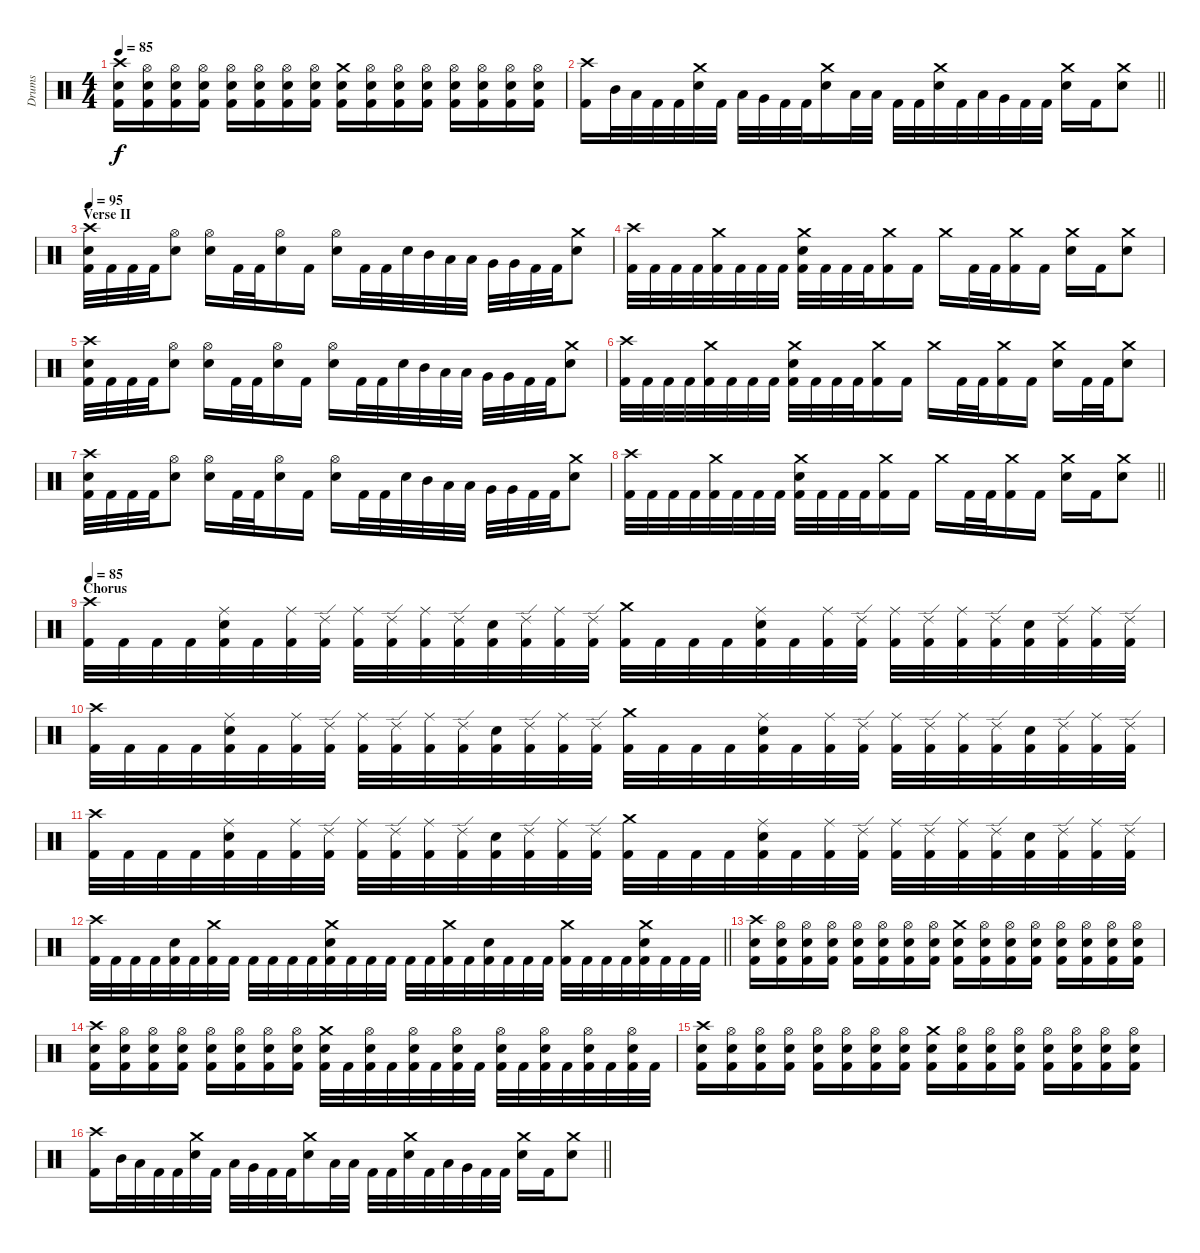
\track ("Drums" "Drums") {instrument percussion}
\staff {score}
\articulation defaults
\ts (4 4)
\tempo 85
\clef neutral
\ks c
("Crash high (hit)" "Electric Snare (hit)" "Kick (hit) 2").16{dy f} ("Hi-Hat (open)" "Electric Snare (hit)" "Kick (hit) 2").16 ("Hi-Hat (open)" "Electric Snare (hit)" "Kick (hit) 2").16 ("Hi-Hat (open)" "Electric Snare (hit)" "Kick (hit) 2").16 ("Hi-Hat (open)" "Electric Snare (hit)" "Kick (hit) 2").16 ("Hi-Hat (open)" "Electric Snare (hit)" "Kick (hit) 2").16 ("Hi-Hat (open)" "Electric Snare (hit)" "Kick (hit) 2").16 ("Hi-Hat (open)" "Electric Snare (hit)" "Kick (hit) 2").16 ("Crash medium (hit)" "Electric Snare (hit)" "Kick (hit) 2").16 ("Hi-Hat (open)" "Electric Snare (hit)" "Kick (hit) 2").16 ("Hi-Hat (open)" "Electric Snare (hit)" "Kick (hit) 2").16 ("Hi-Hat (open)" "Electric Snare (hit)" "Kick (hit) 2").16 ("Hi-Hat (open)" "Electric Snare (hit)" "Kick (hit) 2").16 ("Hi-Hat (open)" "Electric Snare (hit)" "Kick (hit) 2").16 ("Hi-Hat (open)" "Electric Snare (hit)" "Kick (hit) 2").16 ("Hi-Hat (open)" "Electric Snare (hit)" "Kick (hit) 2").16 |
\barLineRight lightlight
("Crash high (hit)" "Kick (hit) 2").16 "Mid Tom (hit)".32 "Low Tom (hit)".32 "Kick (hit) 2".32 "Kick (hit) 2".32 ("Crash medium (hit)" "Electric Snare (hit)").32 "Kick (hit) 2".32 "Low Tom (hit)".32 "Very Low Tom (hit)".32 "Kick (hit) 2".32 "Kick (hit) 2".32 ("Crash medium (hit)" "Electric Snare (hit)").16 "Low Tom (hit)".32 "Low Tom (hit)".32 "Kick (hit) 2".32 "Kick (hit) 2".32 ("Crash medium (hit)" "Electric Snare (hit)").32 "Kick (hit) 2".32 "Low Tom (hit)".32 "Very Low Tom (hit)".32 "Kick (hit) 2".32 "Kick (hit) 2".32 ("Crash medium (hit)" "Electric Snare (hit)").16 "Kick (hit) 2".16 ("Crash medium (hit)" "Electric Snare (hit)").8 |
\section ("" "Verse II")
\tempo 95
("Crash high (hit)" "Electric Snare (hit)" "Kick (hit) 2").32 "Kick (hit) 2".32 "Kick (hit) 2".32 "Kick (hit) 2".32 ("Hi-Hat (open)" "Electric Snare (hit)").8 ("Hi-Hat (open)" "Electric Snare (hit)").16 "Kick (hit) 2".32 "Kick (hit) 2".32 ("Hi-Hat (open)" "Electric Snare (hit)").16 "Kick (hit) 2".16 ("Hi-Hat (open)" "Electric Snare (hit)").16 "Kick (hit) 2".32 "Kick (hit) 2".32 "Electric Snare (hit)".32 "Mid Tom (hit)".32 "Low Tom (hit)".32 "Low Tom (hit)".32 "Very Low Tom (hit)".32 "Very Low Tom (hit)".32 "Kick (hit) 2".32 "Kick (hit) 2".32 ("Crash medium (hit)" "Electric Snare (hit)").8 |
("Crash high (hit)" "Kick (hit) 2").32 "Kick (hit) 2".32 "Kick (hit) 2".32 "Kick (hit) 2".32 ("Crash medium (hit)" "Kick (hit) 2").32 "Kick (hit) 2".32 "Kick (hit) 2".32 "Kick (hit) 2".32 ("Crash medium (hit)" "Electric Snare (hit)" "Kick (hit) 2").32 "Kick (hit) 2".32 "Kick (hit) 2".32 "Kick (hit) 2".32 ("Crash medium (hit)" "Kick (hit) 2").16 "Kick (hit) 2".16 "Crash medium (hit)".16 "Kick (hit) 2".32 "Kick (hit) 2".32 ("Crash medium (hit)" "Kick (hit) 2").16 "Kick (hit) 2".16 ("Crash medium (hit)" "Electric Snare (hit)").16 "Kick (hit) 2".16 ("Crash medium (hit)" "Electric Snare (hit)").8 |
("Crash high (hit)" "Electric Snare (hit)" "Kick (hit) 2").32 "Kick (hit) 2".32 "Kick (hit) 2".32 "Kick (hit) 2".32 ("Hi-Hat (open)" "Electric Snare (hit)").8 ("Hi-Hat (open)" "Electric Snare (hit)").16 "Kick (hit) 2".32 "Kick (hit) 2".32 ("Hi-Hat (open)" "Electric Snare (hit)").16 "Kick (hit) 2".16 ("Hi-Hat (open)" "Electric Snare (hit)").16 "Kick (hit) 2".32 "Kick (hit) 2".32 "Electric Snare (hit)".32 "Mid Tom (hit)".32 "Low Tom (hit)".32 "Low Tom (hit)".32 "Very Low Tom (hit)".32 "Very Low Tom (hit)".32 "Kick (hit) 2".32 "Kick (hit) 2".32 ("Crash medium (hit)" "Electric Snare (hit)").8 |
("Crash high (hit)" "Kick (hit) 2").32 "Kick (hit) 2".32 "Kick (hit) 2".32 "Kick (hit) 2".32 ("Crash medium (hit)" "Kick (hit) 2").32 "Kick (hit) 2".32 "Kick (hit) 2".32 "Kick (hit) 2".32 ("Crash medium (hit)" "Electric Snare (hit)" "Kick (hit) 2").32 "Kick (hit) 2".32 "Kick (hit) 2".32 "Kick (hit) 2".32 ("Crash medium (hit)" "Kick (hit) 2").16 "Kick (hit) 2".16 "Crash medium (hit)".16 "Kick (hit) 2".32 "Kick (hit) 2".32 ("Crash medium (hit)" "Kick (hit) 2").16 "Kick (hit) 2".16 ("Crash medium (hit)" "Electric Snare (hit)").16 "Kick (hit) 2".32 "Kick (hit) 2".32 ("Crash medium (hit)" "Electric Snare (hit)").8 |
("Crash high (hit)" "Electric Snare (hit)" "Kick (hit) 2").32 "Kick (hit) 2".32 "Kick (hit) 2".32 "Kick (hit) 2".32 ("Hi-Hat (open)" "Electric Snare (hit)").8 ("Hi-Hat (open)" "Electric Snare (hit)").16 "Kick (hit) 2".32 "Kick (hit) 2".32 ("Hi-Hat (open)" "Electric Snare (hit)").16 "Kick (hit) 2".16 ("Hi-Hat (open)" "Electric Snare (hit)").16 "Kick (hit) 2".32 "Kick (hit) 2".32 "Electric Snare (hit)".32 "Mid Tom (hit)".32 "Low Tom (hit)".32 "Low Tom (hit)".32 "Very Low Tom (hit)".32 "Very Low Tom (hit)".32 "Kick (hit) 2".32 "Kick (hit) 2".32 ("Crash medium (hit)" "Electric Snare (hit)").8 |
\barLineRight lightlight
("Crash high (hit)" "Kick (hit) 2").32 "Kick (hit) 2".32 "Kick (hit) 2".32 "Kick (hit) 2".32 ("Crash medium (hit)" "Kick (hit) 2").32 "Kick (hit) 2".32 "Kick (hit) 2".32 "Kick (hit) 2".32 ("Crash medium (hit)" "Electric Snare (hit)" "Kick (hit) 2").32 "Kick (hit) 2".32 "Kick (hit) 2".32 "Kick (hit) 2".32 ("Crash medium (hit)" "Kick (hit) 2").16 "Kick (hit) 2".16 "Crash medium (hit)".16 "Kick (hit) 2".32 "Kick (hit) 2".32 ("Crash medium (hit)" "Kick (hit) 2").16 "Kick (hit) 2".16 ("Crash medium (hit)" "Electric Snare (hit)").16 "Kick (hit) 2".16 ("Crash medium (hit)" "Electric Snare (hit)").8 |
\section ("" "Chorus")
\tempo 85
("Crash high (hit)" "Kick (hit) 2").32 "Kick (hit) 2".32 "Kick (hit) 2".32 "Kick (hit) 2".32 ("Ride (middle)" "Electric Snare (hit)" "Kick (hit) 2").32 "Kick (hit) 2".32 ("Ride (middle)" "Kick (hit) 2").32 ("Ride (edge) 2" "Kick (hit) 2").32 ("Ride (middle)" "Kick (hit) 2").32 ("Ride (edge) 2" "Kick (hit) 2").32 ("Ride (middle)" "Kick (hit) 2").32 ("Ride (edge) 2" "Kick (hit) 2").32 ("Electric Snare (hit)" "Kick (hit) 2").32 ("Ride (edge) 2" "Kick (hit) 2").32 ("Ride (middle)" "Kick (hit) 2").32 ("Ride (edge) 2" "Kick (hit) 2").32 ("Crash medium (hit)" "Kick (hit) 2").32 "Kick (hit) 2".32 "Kick (hit) 2".32 "Kick (hit) 2".32 ("Ride (middle)" "Electric Snare (hit)" "Kick (hit) 2").32 "Kick (hit) 2".32 ("Ride (middle)" "Kick (hit) 2").32 ("Ride (edge) 2" "Kick (hit) 2").32 ("Ride (middle)" "Kick (hit) 2").32 ("Ride (edge) 2" "Kick (hit) 2").32 ("Ride (middle)" "Kick (hit) 2").32 ("Ride (edge) 2" "Kick (hit) 2").32 ("Electric Snare (hit)" "Kick (hit) 2").32 ("Ride (edge) 2" "Kick (hit) 2").32 ("Ride (middle)" "Kick (hit) 2").32 ("Ride (edge) 2" "Kick (hit) 2").32 |
("Crash high (hit)" "Kick (hit) 2").32 "Kick (hit) 2".32 "Kick (hit) 2".32 "Kick (hit) 2".32 ("Ride (middle)" "Electric Snare (hit)" "Kick (hit) 2").32 "Kick (hit) 2".32 ("Ride (middle)" "Kick (hit) 2").32 ("Ride (edge) 2" "Kick (hit) 2").32 ("Ride (middle)" "Kick (hit) 2").32 ("Ride (edge) 2" "Kick (hit) 2").32 ("Ride (middle)" "Kick (hit) 2").32 ("Ride (edge) 2" "Kick (hit) 2").32 ("Electric Snare (hit)" "Kick (hit) 2").32 ("Ride (edge) 2" "Kick (hit) 2").32 ("Ride (middle)" "Kick (hit) 2").32 ("Ride (edge) 2" "Kick (hit) 2").32 ("Crash medium (hit)" "Kick (hit) 2").32 "Kick (hit) 2".32 "Kick (hit) 2".32 "Kick (hit) 2".32 ("Ride (middle)" "Electric Snare (hit)" "Kick (hit) 2").32 "Kick (hit) 2".32 ("Ride (middle)" "Kick (hit) 2").32 ("Ride (edge) 2" "Kick (hit) 2").32 ("Ride (middle)" "Kick (hit) 2").32 ("Ride (edge) 2" "Kick (hit) 2").32 ("Ride (middle)" "Kick (hit) 2").32 ("Ride (edge) 2" "Kick (hit) 2").32 ("Electric Snare (hit)" "Kick (hit) 2").32 ("Ride (edge) 2" "Kick (hit) 2").32 ("Ride (middle)" "Kick (hit) 2").32 ("Ride (edge) 2" "Kick (hit) 2").32 |
("Crash high (hit)" "Kick (hit) 2").32 "Kick (hit) 2".32 "Kick (hit) 2".32 "Kick (hit) 2".32 ("Ride (middle)" "Electric Snare (hit)" "Kick (hit) 2").32 "Kick (hit) 2".32 ("Ride (middle)" "Kick (hit) 2").32 ("Ride (edge) 2" "Kick (hit) 2").32 ("Ride (middle)" "Kick (hit) 2").32 ("Ride (edge) 2" "Kick (hit) 2").32 ("Ride (middle)" "Kick (hit) 2").32 ("Ride (edge) 2" "Kick (hit) 2").32 ("Electric Snare (hit)" "Kick (hit) 2").32 ("Ride (edge) 2" "Kick (hit) 2").32 ("Ride (middle)" "Kick (hit) 2").32 ("Ride (edge) 2" "Kick (hit) 2").32 ("Crash medium (hit)" "Kick (hit) 2").32 "Kick (hit) 2".32 "Kick (hit) 2".32 "Kick (hit) 2".32 ("Ride (middle)" "Electric Snare (hit)" "Kick (hit) 2").32 "Kick (hit) 2".32 ("Ride (middle)" "Kick (hit) 2").32 ("Ride (edge) 2" "Kick (hit) 2").32 ("Ride (middle)" "Kick (hit) 2").32 ("Ride (edge) 2" "Kick (hit) 2").32 ("Ride (middle)" "Kick (hit) 2").32 ("Ride (edge) 2" "Kick (hit) 2").32 ("Electric Snare (hit)" "Kick (hit) 2").32 ("Ride (edge) 2" "Kick (hit) 2").32 ("Ride (middle)" "Kick (hit) 2").32 ("Ride (edge) 2" "Kick (hit) 2").32 |
\barLineRight lightlight
("Crash high (hit)" "Kick (hit) 2").32 "Kick (hit) 2".32 "Kick (hit) 2".32 "Kick (hit) 2".32 ("Electric Snare (hit)" "Kick (hit) 2").32 "Kick (hit) 2".32 ("Crash medium (hit)" "Kick (hit) 2").32 "Kick (hit) 2".32 "Kick (hit) 2".32 "Kick (hit) 2".32 "Kick (hit) 2".32 "Kick (hit) 2".32 ("Crash medium (hit)" "Electric Snare (hit)" "Kick (hit) 2").32 "Kick (hit) 2".32 "Kick (hit) 2".32 "Kick (hit) 2".32 "Kick (hit) 2".32 "Kick (hit) 2".32 ("Crash medium (hit)" "Kick (hit) 2").32 "Kick (hit) 2".32 ("Electric Snare (hit)" "Kick (hit) 2").32 "Kick (hit) 2".32 "Kick (hit) 2".32 "Kick (hit) 2".32 ("Crash medium (hit)" "Kick (hit) 2").32 "Kick (hit) 2".32 "Kick (hit) 2".32 "Kick (hit) 2".32 ("Crash medium (hit)" "Electric Snare (hit)" "Kick (hit) 2").32 "Kick (hit) 2".32 "Kick (hit) 2".32 "Kick (hit) 2".32 |
("Crash high (hit)" "Electric Snare (hit)" "Kick (hit) 2").16 ("Hi-Hat (open)" "Electric Snare (hit)" "Kick (hit) 2").16 ("Hi-Hat (open)" "Electric Snare (hit)" "Kick (hit) 2").16 ("Hi-Hat (open)" "Electric Snare (hit)" "Kick (hit) 2").16 ("Hi-Hat (open)" "Electric Snare (hit)" "Kick (hit) 2").16 ("Hi-Hat (open)" "Electric Snare (hit)" "Kick (hit) 2").16 ("Hi-Hat (open)" "Electric Snare (hit)" "Kick (hit) 2").16 ("Hi-Hat (open)" "Electric Snare (hit)" "Kick (hit) 2").16 ("Crash medium (hit)" "Electric Snare (hit)" "Kick (hit) 2").16 ("Hi-Hat (open)" "Electric Snare (hit)" "Kick (hit) 2").16 ("Hi-Hat (open)" "Electric Snare (hit)" "Kick (hit) 2").16 ("Hi-Hat (open)" "Electric Snare (hit)" "Kick (hit) 2").16 ("Hi-Hat (open)" "Electric Snare (hit)" "Kick (hit) 2").16 ("Hi-Hat (open)" "Electric Snare (hit)" "Kick (hit) 2").16 ("Hi-Hat (open)" "Electric Snare (hit)" "Kick (hit) 2").16 ("Hi-Hat (open)" "Electric Snare (hit)" "Kick (hit) 2").16 |
("Crash high (hit)" "Electric Snare (hit)" "Kick (hit) 2").16 ("Hi-Hat (open)" "Electric Snare (hit)" "Kick (hit) 2").16 ("Hi-Hat (open)" "Electric Snare (hit)" "Kick (hit) 2").16 ("Hi-Hat (open)" "Electric Snare (hit)" "Kick (hit) 2").16 ("Hi-Hat (open)" "Electric Snare (hit)" "Kick (hit) 2").16 ("Hi-Hat (open)" "Electric Snare (hit)" "Kick (hit) 2").16 ("Hi-Hat (open)" "Electric Snare (hit)" "Kick (hit) 2").16 ("Hi-Hat (open)" "Electric Snare (hit)" "Kick (hit) 2").16 ("Crash medium (hit)" "Electric Snare (hit)" "Kick (hit) 2").32 "Kick (hit) 2".32 ("Hi-Hat (open)" "Electric Snare (hit)" "Kick (hit) 2").32 "Kick (hit) 2".32 ("Hi-Hat (open)" "Electric Snare (hit)" "Kick (hit) 2").32 "Kick (hit) 2".32 ("Hi-Hat (open)" "Electric Snare (hit)" "Kick (hit) 2").32 "Kick (hit) 2".32 ("Hi-Hat (open)" "Electric Snare (hit)" "Kick (hit) 2").32 "Kick (hit) 2".32 ("Hi-Hat (open)" "Electric Snare (hit)" "Kick (hit) 2").32 "Kick (hit) 2".32 ("Hi-Hat (open)" "Electric Snare (hit)" "Kick (hit) 2").32 "Kick (hit) 2".32 ("Hi-Hat (open)" "Electric Snare (hit)" "Kick (hit) 2").32 "Kick (hit) 2".32 |
("Crash high (hit)" "Electric Snare (hit)" "Kick (hit) 2").16 ("Hi-Hat (open)" "Electric Snare (hit)" "Kick (hit) 2").16 ("Hi-Hat (open)" "Electric Snare (hit)" "Kick (hit) 2").16 ("Hi-Hat (open)" "Electric Snare (hit)" "Kick (hit) 2").16 ("Hi-Hat (open)" "Electric Snare (hit)" "Kick (hit) 2").16 ("Hi-Hat (open)" "Electric Snare (hit)" "Kick (hit) 2").16 ("Hi-Hat (open)" "Electric Snare (hit)" "Kick (hit) 2").16 ("Hi-Hat (open)" "Electric Snare (hit)" "Kick (hit) 2").16 ("Crash medium (hit)" "Electric Snare (hit)" "Kick (hit) 2").16 ("Hi-Hat (open)" "Electric Snare (hit)" "Kick (hit) 2").16 ("Hi-Hat (open)" "Electric Snare (hit)" "Kick (hit) 2").16 ("Hi-Hat (open)" "Electric Snare (hit)" "Kick (hit) 2").16 ("Hi-Hat (open)" "Electric Snare (hit)" "Kick (hit) 2").16 ("Hi-Hat (open)" "Electric Snare (hit)" "Kick (hit) 2").16 ("Hi-Hat (open)" "Electric Snare (hit)" "Kick (hit) 2").16 ("Hi-Hat (open)" "Electric Snare (hit)" "Kick (hit) 2").16 |
\barLineRight lightlight
("Crash high (hit)" "Kick (hit) 2").16 "Mid Tom (hit)".32 "Low Tom (hit)".32 "Kick (hit) 2".32 "Kick (hit) 2".32 ("Crash medium (hit)" "Electric Snare (hit)").32 "Kick (hit) 2".32 "Low Tom (hit)".32 "Very Low Tom (hit)".32 "Kick (hit) 2".32 "Kick (hit) 2".32 ("Crash medium (hit)" "Electric Snare (hit)").16 "Low Tom (hit)".32 "Low Tom (hit)".32 "Kick (hit) 2".32 "Kick (hit) 2".32 ("Crash medium (hit)" "Electric Snare (hit)").32 "Kick (hit) 2".32 "Low Tom (hit)".32 "Very Low Tom (hit)".32 "Kick (hit) 2".32 "Kick (hit) 2".32 ("Crash medium (hit)" "Electric Snare (hit)").16 "Kick (hit) 2".16 ("Crash medium (hit)" "Electric Snare (hit)").8
